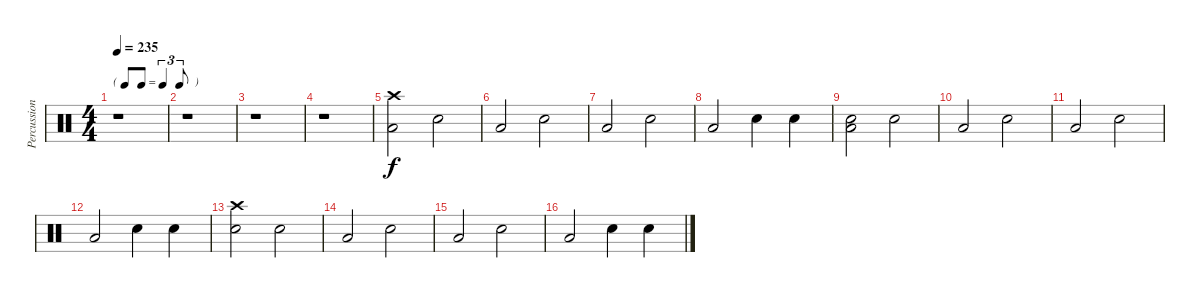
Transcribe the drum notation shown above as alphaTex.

\track ("Percussions" "Percussion") {instrument percussion}
\staff {score}
\articulation defaults
\ts (4 4)
\tf triplet8th
\tempo 235
\clef neutral
\ks c
r.1{dy f} |
r.1 |
r.1 |
r.1 |
("Crash high (hit)" "Low Tom (hit)").2 "Snare (hit) 2".2 |
"Low Tom (hit)".2 "Snare (hit) 2".2 |
"Low Tom (hit)".2 "Snare (hit) 2".2 |
"Low Tom (hit)".2 "Snare (hit) 2".4 "Snare (hit) 2".4 |
("Snare (hit)" "Low Tom (hit)").2 "Snare (hit) 2".2 |
"Low Tom (hit)".2 "Snare (hit) 2".2 |
"Low Tom (hit)".2 "Snare (hit) 2".2 |
"Low Tom (hit)".2 "Snare (hit) 2".4 "Snare (hit) 2".4 |
("Crash high (hit)" "Snare (hit)").2 "Snare (hit) 2".2 |
"Low Tom (hit)".2 "Snare (hit) 2".2 |
"Low Tom (hit)".2 "Snare (hit) 2".2 |
"Low Tom (hit)".2 "Snare (hit) 2".4 "Snare (hit) 2".4
